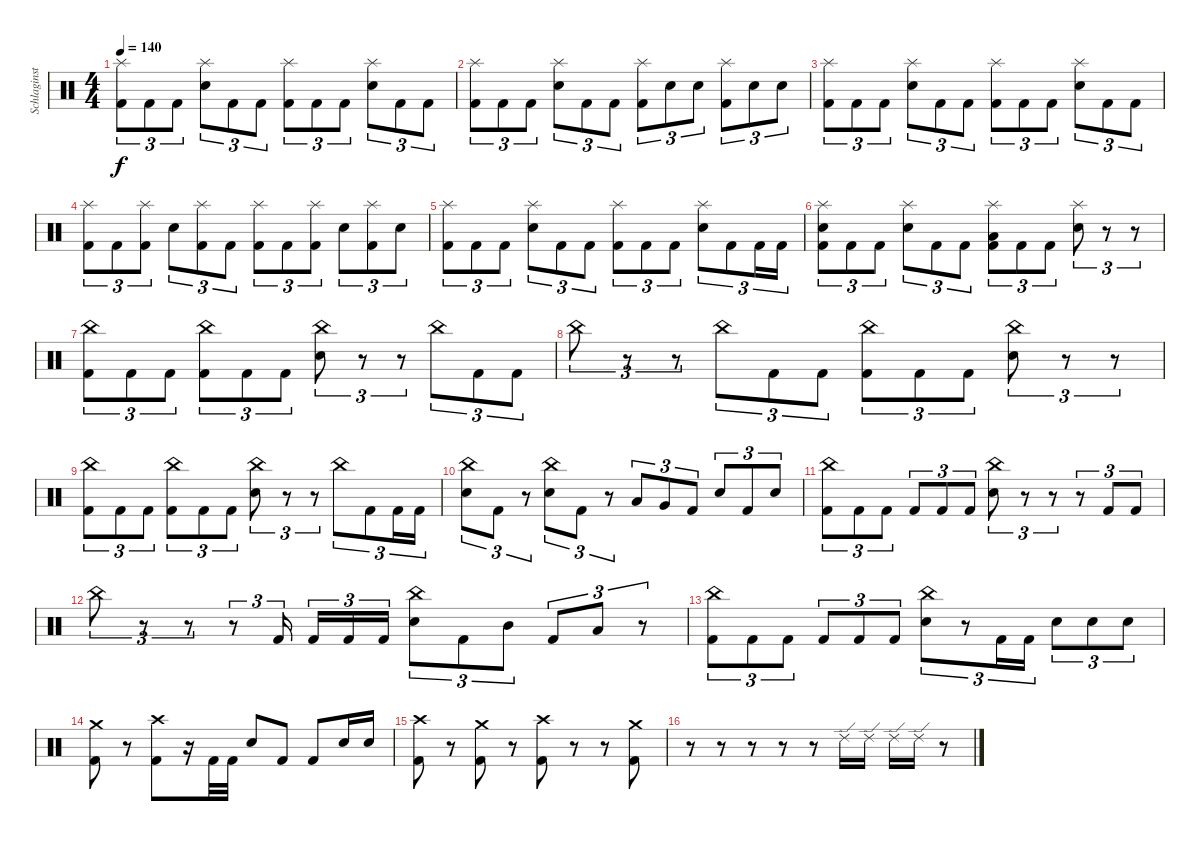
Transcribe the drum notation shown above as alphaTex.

\track ("Schlaginstrumente - Auswahl" "Schlaginst") {instrument percussion}
\staff {score}
\articulation defaults
\ts (4 4)
\tempo 140
\clef neutral
\ks c
("Splash (hit)" "Kick (hit) 2").8{tu (3 2) dy f} "Kick (hit) 2".8{tu (3 2)} "Kick (hit) 2".8{tu (3 2)} ("Splash (hit)" "Electric Snare (hit)").8{tu (3 2)} "Kick (hit) 2".8{tu (3 2)} "Kick (hit) 2".8{tu (3 2)} ("Splash (hit)" "Kick (hit) 2").8{tu (3 2)} "Kick (hit) 2".8{tu (3 2)} "Kick (hit) 2".8{tu (3 2)} ("Splash (hit)" "Electric Snare (hit)").8{tu (3 2)} "Kick (hit) 2".8{tu (3 2)} "Kick (hit) 2".8{tu (3 2)} |
("Splash (hit)" "Kick (hit) 2").8{tu (3 2)} "Kick (hit) 2".8{tu (3 2)} "Kick (hit) 2".8{tu (3 2)} ("Splash (hit)" "Electric Snare (hit)").8{tu (3 2)} "Kick (hit) 2".8{tu (3 2)} "Kick (hit) 2".8{tu (3 2)} ("Splash (hit)" "Kick (hit) 2").8{tu (3 2)} "Electric Snare (hit)".8{tu (3 2)} "Electric Snare (hit)".8{tu (3 2)} ("Splash (hit)" "Kick (hit) 2").8{tu (3 2)} "Electric Snare (hit)".8{tu (3 2)} "Electric Snare (hit)".8{tu (3 2)} |
("Splash (hit)" "Kick (hit) 2").8{tu (3 2)} "Kick (hit) 2".8{tu (3 2)} "Kick (hit) 2".8{tu (3 2)} ("Splash (hit)" "Electric Snare (hit)").8{tu (3 2)} "Kick (hit) 2".8{tu (3 2)} "Kick (hit) 2".8{tu (3 2)} ("Splash (hit)" "Kick (hit) 2").8{tu (3 2)} "Kick (hit) 2".8{tu (3 2)} "Kick (hit) 2".8{tu (3 2)} ("Splash (hit)" "Electric Snare (hit)").8{tu (3 2)} "Kick (hit) 2".8{tu (3 2)} "Kick (hit) 2".8{tu (3 2)} |
("Splash (hit)" "Kick (hit) 2").8{tu (3 2)} "Kick (hit) 2".8{tu (3 2)} ("Splash (hit)" "Kick (hit) 2").8{tu (3 2)} "Electric Snare (hit)".8{tu (3 2)} ("Splash (hit)" "Kick (hit) 2").8{tu (3 2)} "Kick (hit) 2".8{tu (3 2)} ("Splash (hit)" "Kick (hit) 2").8{tu (3 2)} "Kick (hit) 2".8{tu (3 2)} ("Splash (hit)" "Kick (hit) 2").8{tu (3 2)} "Electric Snare (hit)".8{tu (3 2)} ("Splash (hit)" "Kick (hit) 2").8{tu (3 2)} "Electric Snare (hit)".8{tu (3 2)} |
("Splash (hit)" "Kick (hit) 2").8{tu (3 2)} "Kick (hit) 2".8{tu (3 2)} "Kick (hit) 2".8{tu (3 2)} ("Splash (hit)" "Electric Snare (hit)").8{tu (3 2)} "Kick (hit) 2".8{tu (3 2)} "Kick (hit) 2".8{tu (3 2)} ("Splash (hit)" "Kick (hit) 2").8{tu (3 2)} "Kick (hit) 2".8{tu (3 2)} "Kick (hit) 2".8{tu (3 2)} ("Splash (hit)" "Electric Snare (hit)").8{tu (3 2)} "Kick (hit) 2".8{tu (3 2)} "Kick (hit) 2".16{tu (3 2)} "Kick (hit) 2".16{tu (3 2)} |
("Splash (hit)" "Electric Snare (hit)" "Kick (hit) 2").8{tu (3 2)} "Kick (hit) 2".8{tu (3 2)} "Kick (hit) 2".8{tu (3 2)} ("Splash (hit)" "Electric Snare (hit)").8{tu (3 2)} "Kick (hit) 2".8{tu (3 2)} "Kick (hit) 2".8{tu (3 2)} ("Splash (hit)" "Low Tom (hit)" "Kick (hit) 2").8{tu (3 2)} "Kick (hit) 2".8{tu (3 2)} "Kick (hit) 2".8{tu (3 2)} ("Splash (hit)" "Electric Snare (hit)").8{tu (3 2)} r.8{tu (3 2)} r.8{tu (3 2)} |
("China (hit)" "Kick (hit) 2").8{tu (3 2)} "Kick (hit) 2".8{tu (3 2)} "Kick (hit) 2".8{tu (3 2)} ("China (hit)" "Kick (hit) 2").8{tu (3 2)} "Kick (hit) 2".8{tu (3 2)} "Kick (hit) 2".8{tu (3 2)} ("China (hit)" "Electric Snare (hit)").8{tu (3 2)} r.8{tu (3 2)} r.8{tu (3 2)} "China (hit)".8{tu (3 2)} "Kick (hit) 2".8{tu (3 2)} "Kick (hit) 2".8{tu (3 2)} |
"China (hit)".8{tu (3 2)} r.8{tu (3 2)} r.8{tu (3 2)} "China (hit)".8{tu (3 2)} "Kick (hit) 2".8{tu (3 2)} "Kick (hit) 2".8{tu (3 2)} ("China (hit)" "Kick (hit) 2").8{tu (3 2)} "Kick (hit) 2".8{tu (3 2)} "Kick (hit) 2".8{tu (3 2)} ("China (hit)" "Electric Snare (hit)").8{tu (3 2)} r.8{tu (3 2)} r.8{tu (3 2)} |
("China (hit)" "Kick (hit) 2").8{tu (3 2)} "Kick (hit) 2".8{tu (3 2)} "Kick (hit) 2".8{tu (3 2)} ("China (hit)" "Kick (hit) 2").8{tu (3 2)} "Kick (hit) 2".8{tu (3 2)} "Kick (hit) 2".8{tu (3 2)} ("China (hit)" "Electric Snare (hit)").8{tu (3 2)} r.8{tu (3 2)} r.8{tu (3 2)} "China (hit)".8{tu (3 2)} "Kick (hit) 2".8{tu (3 2)} "Kick (hit) 2".16{tu (3 2)} "Kick (hit) 2".16{tu (3 2)} |
("Electric Snare (hit)" "China (hit)").8{tu (3 2)} "Kick (hit) 2".8{tu (3 2)} r.8{tu (3 2)} ("Electric Snare (hit)" "China (hit)").8{tu (3 2)} "Kick (hit) 2".8{tu (3 2)} r.8{tu (3 2)} "Low Tom (hit)".8{tu (3 2)} "Very Low Tom (hit)".8{tu (3 2)} "Kick (hit) 2".8{tu (3 2)} "Electric Snare (hit)".8{tu (3 2)} "Kick (hit) 2".8{tu (3 2)} "Electric Snare (hit)".8{tu (3 2)} |
("China (hit)" "Kick (hit) 2").8{tu (3 2)} "Kick (hit) 2".8{tu (3 2)} "Kick (hit) 2".8{tu (3 2)} "Kick (hit) 2".8{tu (3 2)} "Kick (hit) 2".8{tu (3 2)} "Kick (hit) 2".8{tu (3 2)} ("China (hit)" "Electric Snare (hit)").8{tu (3 2)} r.8{tu (3 2)} r.8{tu (3 2)} r.8{tu (3 2)} "Kick (hit) 2".8{tu (3 2)} "Kick (hit) 2".8{tu (3 2)} |
"China (hit)".8{tu (3 2)} r.8{tu (3 2)} r.8{tu (3 2)} r.8{tu (3 2)} "Kick (hit) 2".16{tu (3 2) beam splitsecondary} "Kick (hit) 2".16{tu (3 2)} "Kick (hit) 2".16{tu (3 2)} "Kick (hit) 2".16{tu (3 2)} ("China (hit)" "Electric Snare (hit)").8{tu (3 2)} "Kick (hit) 2".8{tu (3 2)} "Mid Tom (hit)".8{tu (3 2)} "Kick (hit) 2".8{tu (3 2)} "Low Tom (hit)".8{tu (3 2)} r.8{tu (3 2)} |
("China (hit)" "Kick (hit) 2").8{tu (3 2)} "Kick (hit) 2".8{tu (3 2)} "Kick (hit) 2".8{tu (3 2)} "Kick (hit) 2".8{tu (3 2)} "Kick (hit) 2".8{tu (3 2)} "Kick (hit) 2".8{tu (3 2)} ("China (hit)" "Electric Snare (hit)").8{tu (3 2)} r.8{tu (3 2)} "Kick (hit) 2".16{tu (3 2)} "Kick (hit) 2".16{tu (3 2)} "Electric Snare (hit)".8{tu (3 2)} "Electric Snare (hit)".8{tu (3 2)} "Electric Snare (hit)".8{tu (3 2)} |
("Crash medium (hit)" "Kick (hit) 2").8 r.8 ("Crash high (hit)" "Kick (hit) 2").8 r.16 "Kick (hit) 2".32 "Kick (hit) 2".32 "Electric Snare (hit)".8 "Kick (hit) 2".8 "Kick (hit) 2".8 "Electric Snare (hit)".16 "Electric Snare (hit)".16 |
("Crash high (hit)" "Kick (hit) 2").8 r.8 ("Crash medium (hit)" "Kick (hit) 2").8 r.8 ("Crash high (hit)" "Kick (hit) 2").8 r.8 r.8 ("Crash medium (hit)" "Kick (hit) 2").8 |
r.8 r.8 r.8 r.8 r.8 "Ride (edge) 2".16 "Ride (edge) 2".16 "Ride (edge) 2".16 "Ride (edge) 2".16 r.8
